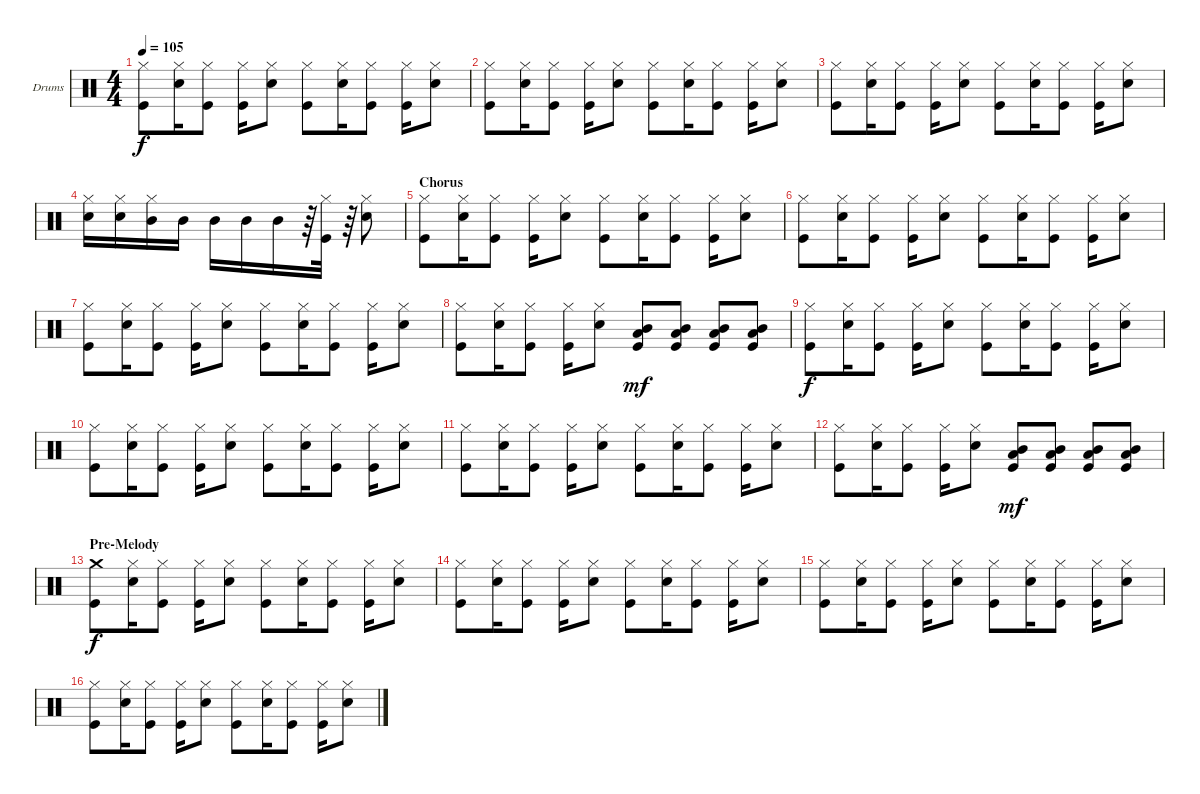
\defaultSystemsLayout 4
\bracketExtendMode groupsimilarinstruments
\firstSystemTrackNameOrientation horizontal
\otherSystemsTrackNameOrientation horizontal
\track ("Drumkit" "Drums") {instrument percussion}
\staff {score}
\articulation defaults
\ts (4 4)
\tempo 105
\clef neutral
\ks c
("Hi-Hat (closed)" "Kick (hit)").8{dy f} ("Hi-Hat (closed)" "Snare (hit) 2").16 ("Hi-Hat (closed)" "Kick (hit)").8 ("Hi-Hat (closed)" "Kick (hit)").16 ("Hi-Hat (closed)" "Snare (hit) 2").8 ("Hi-Hat (closed)" "Kick (hit)").8 ("Hi-Hat (closed)" "Snare (hit) 2").16 ("Hi-Hat (closed)" "Kick (hit)").8 ("Hi-Hat (closed)" "Kick (hit)").16 ("Hi-Hat (closed)" "Snare (hit) 2").8 |
("Hi-Hat (closed)" "Kick (hit)").8 ("Hi-Hat (closed)" "Snare (hit) 2").16 ("Hi-Hat (closed)" "Kick (hit)").8 ("Hi-Hat (closed)" "Kick (hit)").16 ("Hi-Hat (closed)" "Snare (hit) 2").8 ("Hi-Hat (closed)" "Kick (hit)").8 ("Hi-Hat (closed)" "Snare (hit) 2").16 ("Hi-Hat (closed)" "Kick (hit)").8 ("Hi-Hat (closed)" "Kick (hit)").16 ("Hi-Hat (closed)" "Snare (hit) 2").8 |
("Hi-Hat (closed)" "Kick (hit)").8 ("Hi-Hat (closed)" "Snare (hit) 2").16 ("Hi-Hat (closed)" "Kick (hit)").8 ("Hi-Hat (closed)" "Kick (hit)").16 ("Hi-Hat (closed)" "Snare (hit) 2").8 ("Hi-Hat (closed)" "Kick (hit)").8 ("Hi-Hat (closed)" "Snare (hit) 2").16 ("Hi-Hat (closed)" "Kick (hit)").8 ("Hi-Hat (closed)" "Kick (hit)").16 ("Hi-Hat (closed)" "Snare (hit) 2").8 |
("Hi-Hat (closed)" "Snare (hit) 2").16 ("Hi-Hat (closed)" "Snare (hit) 2").16 ("Hi-Hat (closed)" "Mid Tom (hit)").16 "Mid Tom (hit)".16 "Mid Tom (hit)".16 "Mid Tom (hit)".16 "Mid Tom (hit)".16 r.64 ("Hi-Hat (closed)" "Kick (hit)").32 r.64 ("Hi-Hat (closed)" "Snare (hit) 2").8 |
\section ("" "Chorus")
("Hi-Hat (closed)" "Kick (hit)").8 ("Hi-Hat (closed)" "Snare (hit) 2").16 ("Hi-Hat (closed)" "Kick (hit)").8 ("Hi-Hat (closed)" "Kick (hit)").16 ("Hi-Hat (closed)" "Snare (hit) 2").8 ("Hi-Hat (closed)" "Kick (hit)").8 ("Hi-Hat (closed)" "Snare (hit) 2").16 ("Hi-Hat (closed)" "Kick (hit)").8 ("Hi-Hat (closed)" "Kick (hit)").16 ("Hi-Hat (closed)" "Snare (hit) 2").8 |
("Hi-Hat (closed)" "Kick (hit)").8 ("Hi-Hat (closed)" "Snare (hit) 2").16 ("Hi-Hat (closed)" "Kick (hit)").8 ("Hi-Hat (closed)" "Kick (hit)").16 ("Hi-Hat (closed)" "Snare (hit) 2").8 ("Hi-Hat (closed)" "Kick (hit)").8 ("Hi-Hat (closed)" "Snare (hit) 2").16 ("Hi-Hat (closed)" "Kick (hit)").8 ("Hi-Hat (closed)" "Kick (hit)").16 ("Hi-Hat (closed)" "Snare (hit) 2").8 |
("Hi-Hat (closed)" "Kick (hit)").8 ("Hi-Hat (closed)" "Snare (hit) 2").16 ("Hi-Hat (closed)" "Kick (hit)").8 ("Hi-Hat (closed)" "Kick (hit)").16 ("Hi-Hat (closed)" "Snare (hit) 2").8 ("Hi-Hat (closed)" "Kick (hit)").8 ("Hi-Hat (closed)" "Snare (hit) 2").16 ("Hi-Hat (closed)" "Kick (hit)").8 ("Hi-Hat (closed)" "Kick (hit)").16 ("Hi-Hat (closed)" "Snare (hit) 2").8 |
("Hi-Hat (closed)" "Kick (hit)").8 ("Hi-Hat (closed)" "Snare (hit) 2").16 ("Hi-Hat (closed)" "Kick (hit)").8 ("Hi-Hat (closed)" "Kick (hit)").16 ("Hi-Hat (closed)" "Snare (hit) 2").8 ("Kick (hit)" "Mid Tom (hit)" "Low Tom (hit)").8{dy mf} ("Kick (hit)" "Mid Tom (hit)" "Low Tom (hit)").8 ("Kick (hit)" "Mid Tom (hit)" "Low Tom (hit)").8 ("Kick (hit)" "Mid Tom (hit)" "Low Tom (hit)").8 |
("Hi-Hat (closed)" "Kick (hit)").8{dy f} ("Hi-Hat (closed)" "Snare (hit) 2").16 ("Hi-Hat (closed)" "Kick (hit)").8 ("Hi-Hat (closed)" "Kick (hit)").16 ("Hi-Hat (closed)" "Snare (hit) 2").8 ("Hi-Hat (closed)" "Kick (hit)").8 ("Hi-Hat (closed)" "Snare (hit) 2").16 ("Hi-Hat (closed)" "Kick (hit)").8 ("Hi-Hat (closed)" "Kick (hit)").16 ("Hi-Hat (closed)" "Snare (hit) 2").8 |
("Hi-Hat (closed)" "Kick (hit)").8 ("Hi-Hat (closed)" "Snare (hit) 2").16 ("Hi-Hat (closed)" "Kick (hit)").8 ("Hi-Hat (closed)" "Kick (hit)").16 ("Hi-Hat (closed)" "Snare (hit) 2").8 ("Hi-Hat (closed)" "Kick (hit)").8 ("Hi-Hat (closed)" "Snare (hit) 2").16 ("Hi-Hat (closed)" "Kick (hit)").8 ("Hi-Hat (closed)" "Kick (hit)").16 ("Hi-Hat (closed)" "Snare (hit) 2").8 |
("Hi-Hat (closed)" "Kick (hit)").8 ("Hi-Hat (closed)" "Snare (hit) 2").16 ("Hi-Hat (closed)" "Kick (hit)").8 ("Hi-Hat (closed)" "Kick (hit)").16 ("Hi-Hat (closed)" "Snare (hit) 2").8 ("Hi-Hat (closed)" "Kick (hit)").8 ("Hi-Hat (closed)" "Snare (hit) 2").16 ("Hi-Hat (closed)" "Kick (hit)").8 ("Hi-Hat (closed)" "Kick (hit)").16 ("Hi-Hat (closed)" "Snare (hit) 2").8 |
("Hi-Hat (closed)" "Kick (hit)").8 ("Hi-Hat (closed)" "Snare (hit) 2").16 ("Hi-Hat (closed)" "Kick (hit)").8 ("Hi-Hat (closed)" "Kick (hit)").16 ("Hi-Hat (closed)" "Snare (hit) 2").8 ("Kick (hit)" "Mid Tom (hit)" "Low Tom (hit)").8{dy mf} ("Kick (hit)" "Mid Tom (hit)" "Low Tom (hit)").8 ("Kick (hit)" "Mid Tom (hit)" "Low Tom (hit)").8 ("Kick (hit)" "Mid Tom (hit)" "Low Tom (hit)").8 |
\section ("" "Pre-Melody")
("Crash medium (hit)" "Kick (hit)").8{dy f} ("Hi-Hat (closed)" "Snare (hit) 2").16 ("Hi-Hat (closed)" "Kick (hit)").8 ("Hi-Hat (closed)" "Kick (hit)").16 ("Hi-Hat (closed)" "Snare (hit) 2").8 ("Hi-Hat (closed)" "Kick (hit)").8 ("Hi-Hat (closed)" "Snare (hit) 2").16 ("Hi-Hat (closed)" "Kick (hit)").8 ("Hi-Hat (closed)" "Kick (hit)").16 ("Hi-Hat (closed)" "Snare (hit) 2").8 |
("Hi-Hat (closed)" "Kick (hit)").8 ("Hi-Hat (closed)" "Snare (hit) 2").16 ("Hi-Hat (closed)" "Kick (hit)").8 ("Hi-Hat (closed)" "Kick (hit)").16 ("Hi-Hat (closed)" "Snare (hit) 2").8 ("Hi-Hat (closed)" "Kick (hit)").8 ("Hi-Hat (closed)" "Snare (hit) 2").16 ("Hi-Hat (closed)" "Kick (hit)").8 ("Hi-Hat (closed)" "Kick (hit)").16 ("Hi-Hat (closed)" "Snare (hit) 2").8 |
("Hi-Hat (closed)" "Kick (hit)").8 ("Hi-Hat (closed)" "Snare (hit) 2").16 ("Hi-Hat (closed)" "Kick (hit)").8 ("Hi-Hat (closed)" "Kick (hit)").16 ("Hi-Hat (closed)" "Snare (hit) 2").8 ("Hi-Hat (closed)" "Kick (hit)").8 ("Hi-Hat (closed)" "Snare (hit) 2").16 ("Hi-Hat (closed)" "Kick (hit)").8 ("Hi-Hat (closed)" "Kick (hit)").16 ("Hi-Hat (closed)" "Snare (hit) 2").8 |
("Hi-Hat (closed)" "Kick (hit)").8 ("Hi-Hat (closed)" "Snare (hit) 2").16 ("Hi-Hat (closed)" "Kick (hit)").8 ("Hi-Hat (closed)" "Kick (hit)").16 ("Hi-Hat (closed)" "Snare (hit) 2").8 ("Hi-Hat (closed)" "Kick (hit)").8 ("Hi-Hat (closed)" "Snare (hit) 2").16 ("Hi-Hat (closed)" "Kick (hit)").8 ("Hi-Hat (closed)" "Kick (hit)").16 ("Hi-Hat (closed)" "Snare (hit) 2").8
